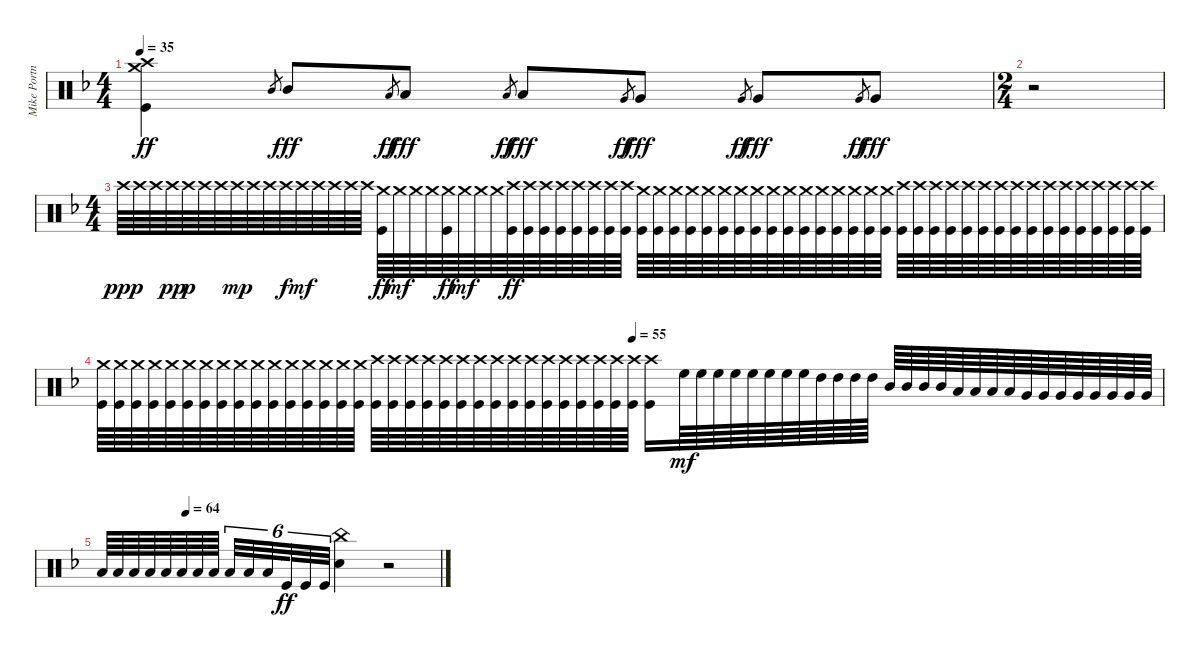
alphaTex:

\track ("Mike Portnoy - Drums" "Mike Portn") {instrument percussion}
\staff {score}
\articulation defaults
\ts (4 4)
\tempo 35
\clef neutral
\ks dminor
("Crash high (hit)" "Crash medium (hit)" "Kick (hit)").4{dy ff} "Mid Tom (hit)".8{gr} "Mid Tom (hit)".8{dy fff} "Low Tom (hit)".8{gr dy ff} "Low Tom (hit)".8{dy fff} "Low Tom (hit)".8{gr dy ff} "Low Tom (hit)".8{dy fff} "Very Low Tom (hit)".8{gr dy ff} "Very Low Tom (hit)".8{dy fff} "Very Low Tom (hit)".8{gr dy ff} "Very Low Tom (hit)".8{dy fff} "Very Low Tom (hit)".8{gr dy ff} "Very Low Tom (hit)".8{dy fff} |
\ts (2 4)
r.2{volume 0} |
\ts (4 4)
"Crash high (hit)".64{dy ppp volume 13} "Crash high (hit)".64 "Crash high (hit)".64 "Crash high (hit)".64{dy pp} "Crash high (hit)".64{dy p} "Crash high (hit)".64 "Crash high (hit)".64 "Crash high (hit)".64{dy mp} "Crash high (hit)".64 "Crash high (hit)".64 "Crash high (hit)".64{dy f} "Crash high (hit)".64{dy mf} "Crash high (hit)".64 "Crash high (hit)".64 "Crash high (hit)".64 "Crash high (hit)".64 ("Crash medium (hit)" "Kick (hit)").64{dy ff} "Crash medium (hit)".64{dy mf} "Crash medium (hit)".64 "Crash medium (hit)".64 ("Crash medium (hit)" "Kick (hit)").64{dy ff} "Crash medium (hit)".64{dy mf} "Crash medium (hit)".64 "Crash medium (hit)".64 ("Crash high (hit)" "Kick (hit)").64{dy ff} ("Crash high (hit)" "Kick (hit)").64 ("Crash high (hit)" "Kick (hit)").64 ("Crash high (hit)" "Kick (hit)").64 ("Crash high (hit)" "Kick (hit)").64 ("Crash high (hit)" "Kick (hit)").64 ("Crash high (hit)" "Kick (hit)").64 ("Crash high (hit)" "Kick (hit)").64 ("Crash medium (hit)" "Kick (hit)").64 ("Crash medium (hit)" "Kick (hit)").64 ("Crash medium (hit)" "Kick (hit)").64 ("Crash medium (hit)" "Kick (hit)").64 ("Crash medium (hit)" "Kick (hit)").64 ("Crash medium (hit)" "Kick (hit)").64 ("Crash medium (hit)" "Kick (hit)").64 ("Crash medium (hit)" "Kick (hit)").64 ("Crash medium (hit)" "Kick (hit)").64 ("Crash medium (hit)" "Kick (hit)").64 ("Crash medium (hit)" "Kick (hit)").64 ("Crash medium (hit)" "Kick (hit)").64 ("Crash medium (hit)" "Kick (hit)").64 ("Crash medium (hit)" "Kick (hit)").64 ("Crash medium (hit)" "Kick (hit)").64 ("Crash medium (hit)" "Kick (hit)").64 ("Crash high (hit)" "Kick (hit)").64 ("Crash high (hit)" "Kick (hit)").64 ("Crash high (hit)" "Kick (hit)").64 ("Crash high (hit)" "Kick (hit)").64 ("Crash high (hit)" "Kick (hit)").64 ("Crash high (hit)" "Kick (hit)").64 ("Crash high (hit)" "Kick (hit)").64 ("Crash high (hit)" "Kick (hit)").64 ("Crash high (hit)" "Kick (hit)").64 ("Crash high (hit)" "Kick (hit)").64 ("Crash high (hit)" "Kick (hit)").64 ("Crash high (hit)" "Kick (hit)").64 ("Crash high (hit)" "Kick (hit)").64 ("Crash high (hit)" "Kick (hit)").64 ("Crash high (hit)" "Kick (hit)").64 ("Crash high (hit)" "Kick (hit)").64 |
\tempo (55 0.5)
("Crash medium (hit)" "Kick (hit)").64 ("Crash medium (hit)" "Kick (hit)").64 ("Crash medium (hit)" "Kick (hit)").64 ("Crash medium (hit)" "Kick (hit)").64 ("Crash medium (hit)" "Kick (hit)").64 ("Crash medium (hit)" "Kick (hit)").64 ("Crash medium (hit)" "Kick (hit)").64 ("Crash medium (hit)" "Kick (hit)").64 ("Crash medium (hit)" "Kick (hit)").64 ("Crash medium (hit)" "Kick (hit)").64 ("Crash medium (hit)" "Kick (hit)").64 ("Crash medium (hit)" "Kick (hit)").64 ("Crash medium (hit)" "Kick (hit)").64 ("Crash medium (hit)" "Kick (hit)").64 ("Crash medium (hit)" "Kick (hit)").64 ("Crash medium (hit)" "Kick (hit)").64 ("Crash high (hit)" "Kick (hit)").64 ("Crash high (hit)" "Kick (hit)").64 ("Crash high (hit)" "Kick (hit)").64 ("Crash high (hit)" "Kick (hit)").64 ("Crash high (hit)" "Kick (hit)").64 ("Crash high (hit)" "Kick (hit)").64 ("Crash high (hit)" "Kick (hit)").64 ("Crash high (hit)" "Kick (hit)").64 ("Crash high (hit)" "Kick (hit)").64 ("Crash high (hit)" "Kick (hit)").64 ("Crash high (hit)" "Kick (hit)").64 ("Crash high (hit)" "Kick (hit)").64 ("Crash high (hit)" "Kick (hit)").64 ("Crash high (hit)" "Kick (hit)").64 ("Crash high (hit)" "Kick (hit)").64 ("Crash high (hit)" "Kick (hit)").64 ("Crash high (hit)" "Kick (hit)").16 "High Floor Tom (hit)".64{dy mf} "High Floor Tom (hit)".64 "High Floor Tom (hit)".64 "High Floor Tom (hit)".64 "High Floor Tom (hit)".64 "High Floor Tom (hit)".64 "High Floor Tom (hit)".64 "High Floor Tom (hit)".64 "High Tom (hit)".64 "High Tom (hit)".64 "High Tom (hit)".64 "High Tom (hit)".64 "Mid Tom (hit)".64 "Mid Tom (hit)".64 "Mid Tom (hit)".64 "Mid Tom (hit)".64 "Low Tom (hit)".64 "Low Tom (hit)".64 "Low Tom (hit)".64 "Low Tom (hit)".64 "Very Low Tom (hit)".64 "Very Low Tom (hit)".64 "Very Low Tom (hit)".64 "Very Low Tom (hit)".64 "Very Low Tom (hit)".64 "Very Low Tom (hit)".64 "Very Low Tom (hit)".64 "Very Low Tom (hit)".64 |
\tempo (64 0.25)
"Low Floor Tom (hit)".64 "Low Floor Tom (hit)".64 "Low Floor Tom (hit)".64 "Low Floor Tom (hit)".64 "Low Floor Tom (hit)".64 "Low Floor Tom (hit)".64 "Low Floor Tom (hit)".64 "Low Floor Tom (hit)".64{beam splitsecondary} "Low Floor Tom (hit)".32{tu (6 4)} "Low Floor Tom (hit)".32{tu (6 4)} "Low Floor Tom (hit)".32{tu (6 4) beam splitsecondary} "Kick (hit)".32{tu (6 4) dy ff} "Kick (hit)".32{tu (6 4)} "Kick (hit)".32{tu (6 4)} ("China (hit)" "Snare (hit) 2").4 r.2
